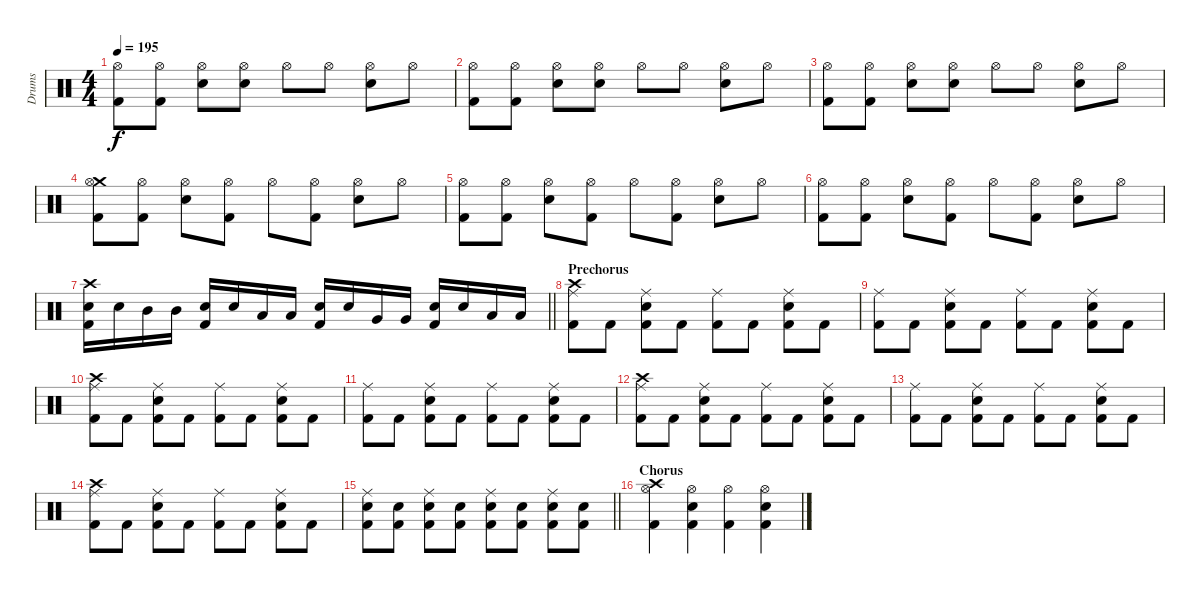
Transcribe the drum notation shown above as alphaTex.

\track ("Drums" "Drums") {instrument percussion}
\staff {score}
\articulation defaults
\ts (4 4)
\tempo 195
\clef neutral
\ks c
("Hi-Hat (open)" "Kick (hit) 2").8{dy f} ("Hi-Hat (open)" "Kick (hit) 2").8 ("Hi-Hat (open)" "Snare (hit) 2").8 ("Hi-Hat (open)" "Snare (hit) 2").8 "Hi-Hat (open)".8 "Hi-Hat (open)".8 ("Hi-Hat (open)" "Snare (hit) 2").8 "Hi-Hat (open)".8 |
("Hi-Hat (open)" "Kick (hit) 2").8 ("Hi-Hat (open)" "Kick (hit) 2").8 ("Hi-Hat (open)" "Snare (hit) 2").8 ("Hi-Hat (open)" "Snare (hit) 2").8 "Hi-Hat (open)".8 "Hi-Hat (open)".8 ("Hi-Hat (open)" "Snare (hit) 2").8 "Hi-Hat (open)".8 |
("Hi-Hat (open)" "Kick (hit) 2").8 ("Hi-Hat (open)" "Kick (hit) 2").8 ("Hi-Hat (open)" "Snare (hit) 2").8 ("Hi-Hat (open)" "Snare (hit) 2").8 "Hi-Hat (open)".8 "Hi-Hat (open)".8 ("Hi-Hat (open)" "Snare (hit) 2").8 "Hi-Hat (open)".8 |
("Crash medium (hit)" "Hi-Hat (open)" "Kick (hit) 2").8 ("Hi-Hat (open)" "Kick (hit) 2").8 ("Hi-Hat (open)" "Snare (hit) 2").8 ("Hi-Hat (open)" "Kick (hit) 2").8 "Hi-Hat (open)".8 ("Hi-Hat (open)" "Kick (hit) 2").8 ("Hi-Hat (open)" "Snare (hit) 2").8 "Hi-Hat (open)".8 |
("Hi-Hat (open)" "Kick (hit) 2").8 ("Hi-Hat (open)" "Kick (hit) 2").8 ("Hi-Hat (open)" "Snare (hit) 2").8 ("Hi-Hat (open)" "Kick (hit) 2").8 "Hi-Hat (open)".8 ("Hi-Hat (open)" "Kick (hit) 2").8 ("Hi-Hat (open)" "Snare (hit) 2").8 "Hi-Hat (open)".8 |
("Hi-Hat (open)" "Kick (hit) 2").8 ("Hi-Hat (open)" "Kick (hit) 2").8 ("Hi-Hat (open)" "Snare (hit) 2").8 ("Hi-Hat (open)" "Kick (hit) 2").8 "Hi-Hat (open)".8 ("Hi-Hat (open)" "Kick (hit) 2").8 ("Hi-Hat (open)" "Snare (hit) 2").8 "Hi-Hat (open)".8 |
\barLineRight lightlight
("Crash high (hit)" "Snare (hit) 2" "Kick (hit) 2").16 "Snare (hit) 2".16 "Mid Tom (hit)".16 "Mid Tom (hit)".16 ("Snare (hit) 2" "Kick (hit) 2").16 "Snare (hit) 2".16 "Low Tom (hit)".16 "Low Tom (hit)".16 ("Snare (hit) 2" "Kick (hit) 2").16 "Snare (hit) 2".16 "Very Low Tom (hit)".16 "Very Low Tom (hit)".16 ("Snare (hit) 2" "Kick (hit) 2").16 "Snare (hit) 2".16 "Low Floor Tom (hit)".16 "Low Floor Tom (hit)".16 |
\section ("" "Prechorus")
("Crash high (hit)" "Ride (middle)" "Kick (hit) 2").8 "Kick (hit) 2".8 ("Ride (middle)" "Snare (hit) 2" "Kick (hit) 2").8 "Kick (hit) 2".8 ("Ride (middle)" "Kick (hit) 2").8 "Kick (hit) 2".8 ("Ride (middle)" "Snare (hit) 2" "Kick (hit) 2").8 "Kick (hit) 2".8 |
("Ride (middle)" "Kick (hit) 2").8 "Kick (hit) 2".8 ("Ride (middle)" "Snare (hit) 2" "Kick (hit) 2").8 "Kick (hit) 2".8 ("Ride (middle)" "Kick (hit) 2").8 "Kick (hit) 2".8 ("Ride (middle)" "Snare (hit) 2" "Kick (hit) 2").8 "Kick (hit) 2".8 |
("Crash high (hit)" "Ride (middle)" "Kick (hit) 2").8 "Kick (hit) 2".8 ("Ride (middle)" "Snare (hit) 2" "Kick (hit) 2").8 "Kick (hit) 2".8 ("Ride (middle)" "Kick (hit) 2").8 "Kick (hit) 2".8 ("Ride (middle)" "Snare (hit) 2" "Kick (hit) 2").8 "Kick (hit) 2".8 |
("Ride (middle)" "Kick (hit) 2").8 "Kick (hit) 2".8 ("Ride (middle)" "Snare (hit) 2" "Kick (hit) 2").8 "Kick (hit) 2".8 ("Ride (middle)" "Kick (hit) 2").8 "Kick (hit) 2".8 ("Ride (middle)" "Snare (hit) 2" "Kick (hit) 2").8 "Kick (hit) 2".8 |
("Crash high (hit)" "Ride (middle)" "Kick (hit) 2").8 "Kick (hit) 2".8 ("Ride (middle)" "Snare (hit) 2" "Kick (hit) 2").8 "Kick (hit) 2".8 ("Ride (middle)" "Kick (hit) 2").8 "Kick (hit) 2".8 ("Ride (middle)" "Snare (hit) 2" "Kick (hit) 2").8 "Kick (hit) 2".8 |
("Ride (middle)" "Kick (hit) 2").8 "Kick (hit) 2".8 ("Ride (middle)" "Snare (hit) 2" "Kick (hit) 2").8 "Kick (hit) 2".8 ("Ride (middle)" "Kick (hit) 2").8 "Kick (hit) 2".8 ("Ride (middle)" "Snare (hit) 2" "Kick (hit) 2").8 "Kick (hit) 2".8 |
("Crash high (hit)" "Ride (middle)" "Kick (hit) 2").8 "Kick (hit) 2".8 ("Ride (middle)" "Snare (hit) 2" "Kick (hit) 2").8 "Kick (hit) 2".8 ("Ride (middle)" "Kick (hit) 2").8 "Kick (hit) 2".8 ("Ride (middle)" "Snare (hit) 2" "Kick (hit) 2").8 "Kick (hit) 2".8 |
\barLineRight lightlight
("Ride (middle)" "Snare (hit) 2" "Kick (hit) 2").8 ("Snare (hit) 2" "Kick (hit) 2").8 ("Ride (middle)" "Snare (hit) 2" "Kick (hit) 2").8 ("Snare (hit) 2" "Kick (hit) 2").8 ("Ride (middle)" "Snare (hit) 2" "Kick (hit) 2").8 ("Snare (hit) 2" "Kick (hit) 2").8 ("Ride (middle)" "Snare (hit) 2" "Kick (hit) 2").8 ("Snare (hit) 2" "Kick (hit) 2").8 |
\section ("" "Chorus")
("Crash high (hit)" "Hi-Hat (open)" "Kick (hit) 2").4 ("Hi-Hat (open)" "Snare (hit) 2" "Kick (hit) 2").4 ("Hi-Hat (open)" "Kick (hit) 2").4 ("Hi-Hat (open)" "Snare (hit) 2" "Kick (hit) 2").4
